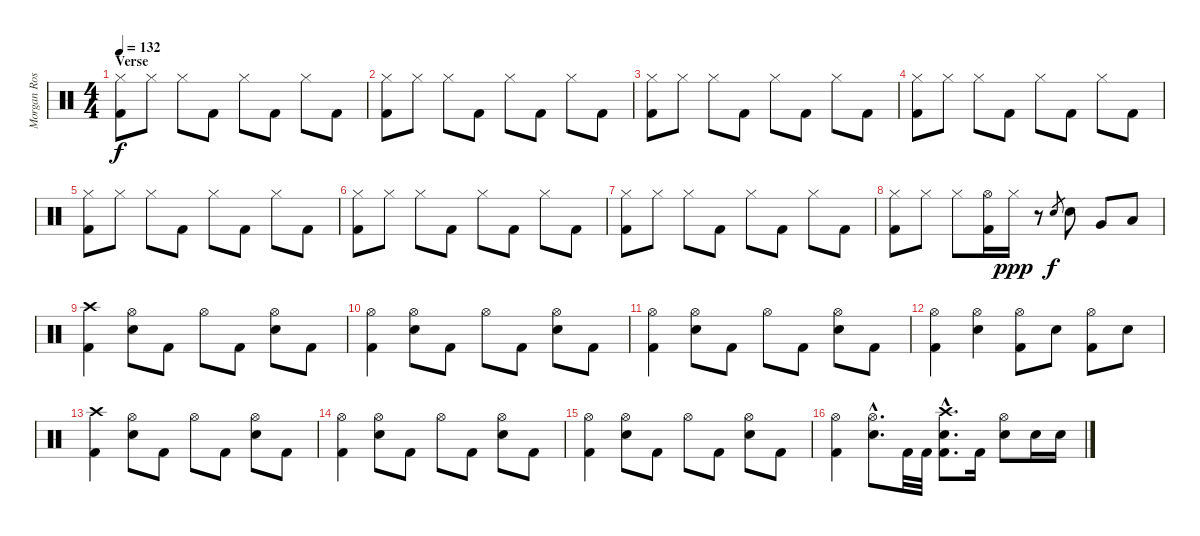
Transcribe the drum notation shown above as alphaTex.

\track ("Morgan Rose" "Morgan Ros") {instrument percussion}
\staff {score}
\articulation defaults
\ts (4 4)
\section ("" "Verse")
\tempo 132
\clef neutral
\ks c
("Hi-Hat (closed)" "Kick (hit) 2").8{dy f} "Hi-Hat (closed)".8 "Hi-Hat (closed)".8 "Kick (hit) 2".8 "Hi-Hat (closed)".8 "Kick (hit) 2".8 "Hi-Hat (closed)".8 "Kick (hit) 2".8 |
("Hi-Hat (closed)" "Kick (hit) 2").8 "Hi-Hat (closed)".8 "Hi-Hat (closed)".8 "Kick (hit) 2".8 "Hi-Hat (closed)".8 "Kick (hit) 2".8 "Hi-Hat (closed)".8 "Kick (hit) 2".8 |
("Hi-Hat (closed)" "Kick (hit) 2").8 "Hi-Hat (closed)".8 "Hi-Hat (closed)".8 "Kick (hit) 2".8 "Hi-Hat (closed)".8 "Kick (hit) 2".8 "Hi-Hat (closed)".8 "Kick (hit) 2".8 |
("Hi-Hat (closed)" "Kick (hit) 2").8 "Hi-Hat (closed)".8 "Hi-Hat (closed)".8 "Kick (hit) 2".8 "Hi-Hat (closed)".8 "Kick (hit) 2".8 "Hi-Hat (closed)".8 "Kick (hit) 2".8 |
("Hi-Hat (closed)" "Kick (hit) 2").8 "Hi-Hat (closed)".8 "Hi-Hat (closed)".8 "Kick (hit) 2".8 "Hi-Hat (closed)".8 "Kick (hit) 2".8 "Hi-Hat (closed)".8 "Kick (hit) 2".8 |
("Hi-Hat (closed)" "Kick (hit) 2").8 "Hi-Hat (closed)".8 "Hi-Hat (closed)".8 "Kick (hit) 2".8 "Hi-Hat (closed)".8 "Kick (hit) 2".8 "Hi-Hat (closed)".8 "Kick (hit) 2".8 |
("Hi-Hat (closed)" "Kick (hit) 2").8 "Hi-Hat (closed)".8 "Hi-Hat (closed)".8 "Kick (hit) 2".8 "Hi-Hat (closed)".8 "Kick (hit) 2".8 "Hi-Hat (closed)".8 "Kick (hit) 2".8 |
("Hi-Hat (closed)" "Kick (hit) 2").8 "Hi-Hat (closed)".8 "Hi-Hat (closed)".8 ("Hi-Hat (open)" "Kick (hit) 2").16 "Hi-Hat (closed)".16{dy ppp} r.8 "Electric Snare (hit)"{h}.8{gr dy f} "Electric Snare (hit)".8 "Very Low Tom (hit)".8 "Low Floor Tom (hit)".8 |
("Crash high (hit)" "Kick (hit) 2").4 ("Hi-Hat (open)" "Electric Snare (hit)").8 "Kick (hit) 2".8 "Hi-Hat (open)".8 "Kick (hit) 2".8 ("Hi-Hat (open)" "Electric Snare (hit)").8 "Kick (hit) 2".8 |
("Hi-Hat (open)" "Kick (hit) 2").4 ("Hi-Hat (open)" "Electric Snare (hit)").8 "Kick (hit) 2".8 "Hi-Hat (open)".8 "Kick (hit) 2".8 ("Hi-Hat (open)" "Electric Snare (hit)").8 "Kick (hit) 2".8 |
("Hi-Hat (open)" "Kick (hit) 2").4 ("Hi-Hat (open)" "Electric Snare (hit)").8 "Kick (hit) 2".8 "Hi-Hat (open)".8 "Kick (hit) 2".8 ("Hi-Hat (open)" "Electric Snare (hit)").8 "Kick (hit) 2".8 |
("Hi-Hat (open)" "Kick (hit) 2").4 ("Hi-Hat (open)" "Electric Snare (hit)").4 ("Hi-Hat (open)" "Kick (hit) 2").8 "Electric Snare (hit)".8 ("Hi-Hat (open)" "Kick (hit) 2").8 "Electric Snare (hit)".8 |
("Crash high (hit)" "Kick (hit) 2").4 ("Hi-Hat (open)" "Electric Snare (hit)").8 "Kick (hit) 2".8 "Hi-Hat (open)".8 "Kick (hit) 2".8 ("Hi-Hat (open)" "Electric Snare (hit)").8 "Kick (hit) 2".8 |
("Hi-Hat (open)" "Kick (hit) 2").4 ("Hi-Hat (open)" "Electric Snare (hit)").8 "Kick (hit) 2".8 "Hi-Hat (open)".8 "Kick (hit) 2".8 ("Hi-Hat (open)" "Electric Snare (hit)").8 "Kick (hit) 2".8 |
("Hi-Hat (open)" "Kick (hit) 2").4 ("Hi-Hat (open)" "Electric Snare (hit)").8 "Kick (hit) 2".8 "Hi-Hat (open)".8 "Kick (hit) 2".8 ("Hi-Hat (open)" "Electric Snare (hit)").8 "Kick (hit) 2".8 |
("Hi-Hat (open)" "Kick (hit) 2").4 ("Hi-Hat (open)"{hac} "Electric Snare (hit)"{hac}).8{d} "Kick (hit) 2".32 "Kick (hit) 2".32 ("Crash high (hit)"{hac} "Electric Snare (hit)"{hac} "Kick (hit) 2"{hac}).8{d} "Kick (hit) 2".16 ("Hi-Hat (open)" "Electric Snare (hit)").8 "Electric Snare (hit)".16 "Electric Snare (hit)".16
